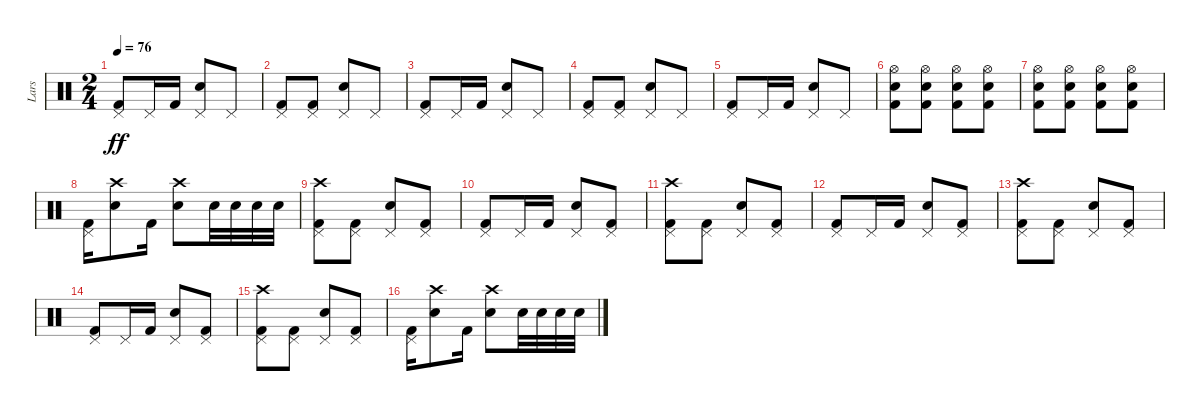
\track ("Lars" "Lars") {instrument percussion}
\staff {score}
\articulation defaults
\ts (2 4)
\tempo 76
\clef neutral
\ks c
("Pedal Hi-Hat (hit)" "Kick (hit) 2").8{dy ff} "Pedal Hi-Hat (hit)".16 "Kick (hit) 2".16 ("Pedal Hi-Hat (hit)" "Snare (hit) 2").8 "Pedal Hi-Hat (hit)".8 |
("Pedal Hi-Hat (hit)" "Kick (hit) 2").8 ("Pedal Hi-Hat (hit)" "Kick (hit) 2").8 ("Pedal Hi-Hat (hit)" "Snare (hit) 2").8 "Pedal Hi-Hat (hit)".8 |
("Pedal Hi-Hat (hit)" "Kick (hit) 2").8 "Pedal Hi-Hat (hit)".16 "Kick (hit) 2".16 ("Pedal Hi-Hat (hit)" "Snare (hit) 2").8 "Pedal Hi-Hat (hit)".8 |
("Pedal Hi-Hat (hit)" "Kick (hit) 2").8 ("Pedal Hi-Hat (hit)" "Kick (hit) 2").8 ("Pedal Hi-Hat (hit)" "Snare (hit) 2").8 "Pedal Hi-Hat (hit)".8 |
("Pedal Hi-Hat (hit)" "Kick (hit) 2").8 "Pedal Hi-Hat (hit)".16 "Kick (hit) 2".16 ("Pedal Hi-Hat (hit)" "Snare (hit) 2").8 "Pedal Hi-Hat (hit)".8 |
("Hi-Hat (open)" "Snare (hit) 2" "Kick (hit) 2").8 ("Hi-Hat (open)" "Snare (hit) 2" "Kick (hit) 2").8 ("Hi-Hat (open)" "Snare (hit) 2" "Kick (hit) 2").8 ("Hi-Hat (open)" "Snare (hit) 2" "Kick (hit) 2").8 |
("Hi-Hat (open)" "Snare (hit) 2" "Kick (hit) 2").8 ("Hi-Hat (open)" "Snare (hit) 2" "Kick (hit) 2").8 ("Hi-Hat (open)" "Snare (hit) 2" "Kick (hit) 2").8 ("Hi-Hat (open)" "Snare (hit) 2" "Kick (hit) 2").8 |
("Pedal Hi-Hat (hit)" "Kick (hit) 2").16 ("Crash high (hit)" "Snare (hit) 2").8 "Kick (hit) 2".16 ("Crash high (hit)" "Snare (hit) 2").8 "Snare (hit) 2".32 "Snare (hit) 2".32 "Snare (hit) 2".32 "Snare (hit) 2".32 |
("Pedal Hi-Hat (hit)" "Crash high (hit)" "Kick (hit) 2").8 ("Pedal Hi-Hat (hit)" "Kick (hit) 2").8 ("Pedal Hi-Hat (hit)" "Snare (hit) 2").8 ("Pedal Hi-Hat (hit)" "Kick (hit) 2").8 |
("Pedal Hi-Hat (hit)" "Kick (hit) 2").8 "Pedal Hi-Hat (hit)".16 "Kick (hit) 2".16 ("Pedal Hi-Hat (hit)" "Snare (hit) 2").8 ("Pedal Hi-Hat (hit)" "Kick (hit) 2").8 |
("Pedal Hi-Hat (hit)" "Crash high (hit)" "Kick (hit) 2").8 ("Pedal Hi-Hat (hit)" "Kick (hit) 2").8 ("Pedal Hi-Hat (hit)" "Snare (hit) 2").8 ("Pedal Hi-Hat (hit)" "Kick (hit) 2").8 |
("Pedal Hi-Hat (hit)" "Kick (hit) 2").8 "Pedal Hi-Hat (hit)".16 "Kick (hit) 2".16 ("Pedal Hi-Hat (hit)" "Snare (hit) 2").8 ("Pedal Hi-Hat (hit)" "Kick (hit) 2").8 |
("Pedal Hi-Hat (hit)" "Crash high (hit)" "Kick (hit) 2").8 ("Pedal Hi-Hat (hit)" "Kick (hit) 2").8 ("Pedal Hi-Hat (hit)" "Snare (hit) 2").8 ("Pedal Hi-Hat (hit)" "Kick (hit) 2").8 |
("Pedal Hi-Hat (hit)" "Kick (hit) 2").8 "Pedal Hi-Hat (hit)".16 "Kick (hit) 2".16 ("Pedal Hi-Hat (hit)" "Snare (hit) 2").8 ("Pedal Hi-Hat (hit)" "Kick (hit) 2").8 |
("Pedal Hi-Hat (hit)" "Crash high (hit)" "Kick (hit) 2").8 ("Pedal Hi-Hat (hit)" "Kick (hit) 2").8 ("Pedal Hi-Hat (hit)" "Snare (hit) 2").8 ("Pedal Hi-Hat (hit)" "Kick (hit) 2").8 |
("Pedal Hi-Hat (hit)" "Kick (hit) 2").16 ("Crash high (hit)" "Snare (hit) 2").8 "Kick (hit) 2".16 ("Crash high (hit)" "Snare (hit) 2").8 "Snare (hit) 2".32 "Snare (hit) 2".32 "Snare (hit) 2".32 "Snare (hit) 2".32
